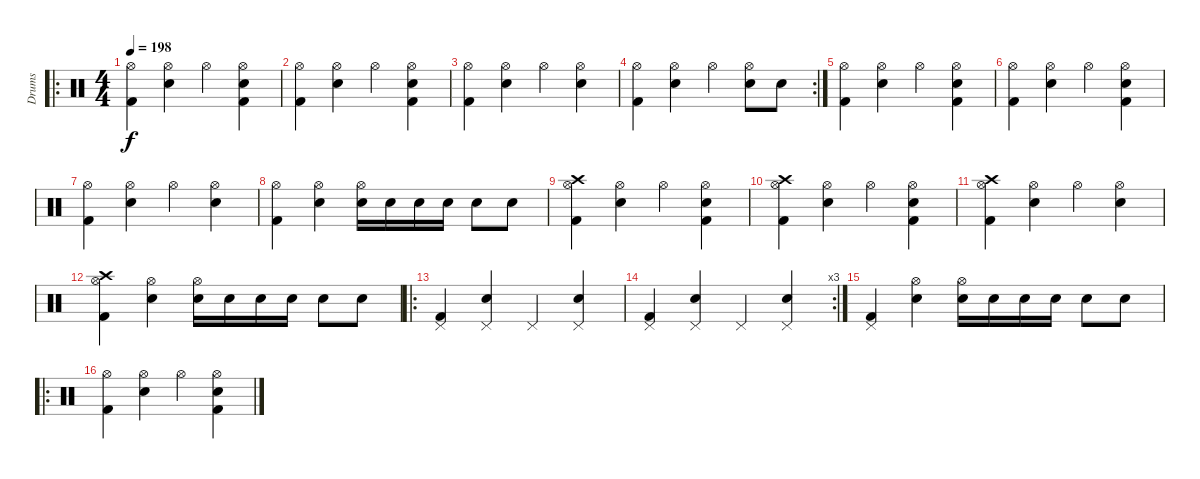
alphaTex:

\track ("Drums" "Drums") {instrument percussion}
\staff {score}
\articulation defaults
\ro
\ts (4 4)
\tempo 198
\clef neutral
\ks c
("Hi-Hat (open)" "Kick (hit) 2").4{dy f} ("Hi-Hat (open)" "Snare (hit) 2").4 "Hi-Hat (open)".4 ("Hi-Hat (open)" "Snare (hit) 2" "Kick (hit) 2").4 |
("Hi-Hat (open)" "Kick (hit) 2").4 ("Hi-Hat (open)" "Snare (hit) 2").4 "Hi-Hat (open)".4 ("Hi-Hat (open)" "Snare (hit) 2" "Kick (hit) 2").4 |
("Hi-Hat (open)" "Kick (hit) 2").4 ("Hi-Hat (open)" "Snare (hit) 2").4 "Hi-Hat (open)".4 ("Hi-Hat (open)" "Snare (hit) 2").4 |
\rc 2
("Hi-Hat (open)" "Kick (hit) 2").4 ("Hi-Hat (open)" "Snare (hit) 2").4 "Hi-Hat (open)".4 ("Hi-Hat (open)" "Snare (hit) 2").8 "Snare (hit) 2".8 |
("Hi-Hat (open)" "Kick (hit) 2").4 ("Hi-Hat (open)" "Snare (hit) 2").4 "Hi-Hat (open)".4 ("Hi-Hat (open)" "Snare (hit) 2" "Kick (hit) 2").4 |
("Hi-Hat (open)" "Kick (hit) 2").4 ("Hi-Hat (open)" "Snare (hit) 2").4 "Hi-Hat (open)".4 ("Hi-Hat (open)" "Snare (hit) 2" "Kick (hit) 2").4 |
("Hi-Hat (open)" "Kick (hit) 2").4 ("Hi-Hat (open)" "Snare (hit) 2").4 "Hi-Hat (open)".4 ("Hi-Hat (open)" "Snare (hit) 2").4 |
("Hi-Hat (open)" "Kick (hit) 2").4 ("Hi-Hat (open)" "Snare (hit) 2").4 ("Hi-Hat (open)" "Snare (hit) 2").16 "Snare (hit) 2".16 "Snare (hit) 2".16 "Snare (hit) 2".16 "Snare (hit) 2".8 "Snare (hit) 2".8 |
("Hi-Hat (open)" "Kick (hit) 2" "Crash high (hit)").4 ("Hi-Hat (open)" "Snare (hit) 2").4 "Hi-Hat (open)".4 ("Hi-Hat (open)" "Snare (hit) 2" "Kick (hit) 2").4 |
("Hi-Hat (open)" "Kick (hit) 2" "Crash high (hit)").4 ("Hi-Hat (open)" "Snare (hit) 2").4 "Hi-Hat (open)".4 ("Hi-Hat (open)" "Snare (hit) 2" "Kick (hit) 2").4 |
("Hi-Hat (open)" "Kick (hit) 2" "Crash high (hit)").4 ("Hi-Hat (open)" "Snare (hit) 2").4 "Hi-Hat (open)".4 ("Hi-Hat (open)" "Snare (hit) 2").4 |
("Hi-Hat (open)" "Kick (hit) 2" "Crash high (hit)").4 ("Hi-Hat (open)" "Snare (hit) 2").4 ("Hi-Hat (open)" "Snare (hit) 2").16 "Snare (hit) 2".16 "Snare (hit) 2".16 "Snare (hit) 2".16 "Snare (hit) 2".8 "Snare (hit) 2".8 |
\ro
("Pedal Hi-Hat (hit)" "Kick (hit) 2").4 ("Pedal Hi-Hat (hit)" "Snare (hit) 2").4 "Pedal Hi-Hat (hit)".4 ("Pedal Hi-Hat (hit)" "Snare (hit) 2").4 |
\rc 3
("Pedal Hi-Hat (hit)" "Kick (hit) 2").4 ("Pedal Hi-Hat (hit)" "Snare (hit) 2").4 "Pedal Hi-Hat (hit)".4 ("Pedal Hi-Hat (hit)" "Snare (hit) 2").4 |
("Pedal Hi-Hat (hit)" "Kick (hit) 2").4 ("Hi-Hat (open)" "Snare (hit) 2").4 ("Snare (hit) 2" "Hi-Hat (open)").16 "Snare (hit) 2".16 "Snare (hit) 2".16 "Snare (hit) 2".16 "Snare (hit) 2".8 "Snare (hit) 2".8 |
\ro
("Hi-Hat (open)" "Kick (hit) 2").4 ("Hi-Hat (open)" "Snare (hit) 2").4 "Hi-Hat (open)".4 ("Hi-Hat (open)" "Snare (hit) 2" "Kick (hit) 2").4
